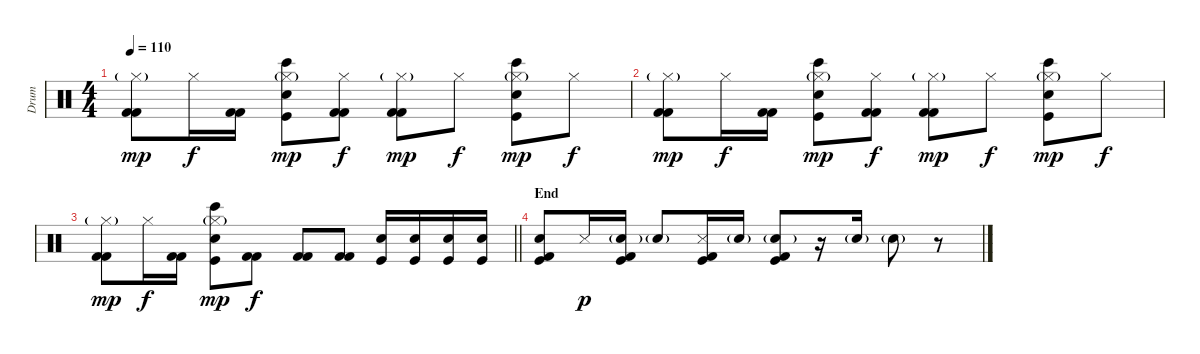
\track ("Drum" "Drum") {instrument percussion}
\staff {score}
\articulation defaults
\ts (4 4)
\tempo 110
\clef neutral
\ks c
("Hi-Hat (closed)"{g} "Kick (hit) 2" "Kick (hit) 2").8{dy mp} "Hi-Hat (closed)".16{dy f} ("Kick (hit) 2" "Kick (hit) 2").16 ("Hi-Hat (closed)"{g} "Bongo High (hit)" "Electric Snare (hit)" "Kick (hit)").8{dy mp} ("Hi-Hat (closed)" "Kick (hit) 2" "Kick (hit) 2").8{dy f} ("Hi-Hat (closed)"{g} "Kick (hit) 2" "Kick (hit) 2").8{dy mp} "Hi-Hat (closed)".8{dy f} ("Hi-Hat (closed)"{g} "Bongo High (hit)" "Electric Snare (hit)" "Kick (hit)").8{dy mp} "Hi-Hat (closed)".8{dy f} |
("Hi-Hat (closed)"{g} "Kick (hit) 2" "Kick (hit) 2").8{dy mp} "Hi-Hat (closed)".16{dy f} ("Kick (hit) 2" "Kick (hit) 2").16 ("Hi-Hat (closed)"{g} "Bongo High (hit)" "Electric Snare (hit)" "Kick (hit)").8{dy mp} ("Hi-Hat (closed)" "Kick (hit) 2" "Kick (hit) 2").8{dy f} ("Hi-Hat (closed)"{g} "Kick (hit) 2" "Kick (hit) 2").8{dy mp} "Hi-Hat (closed)".8{dy f} ("Hi-Hat (closed)"{g} "Bongo High (hit)" "Electric Snare (hit)" "Kick (hit)").8{dy mp} "Hi-Hat (closed)".8{dy f} |
\barLineRight lightlight
("Hi-Hat (closed)"{g} "Kick (hit) 2" "Kick (hit) 2").8{dy mp} "Hi-Hat (closed)".16{dy f} ("Kick (hit) 2" "Kick (hit) 2").16 ("Hi-Hat (closed)"{g} "Bongo High (hit)" "Electric Snare (hit)" "Kick (hit)").8{dy mp} ("Kick (hit) 2" "Kick (hit) 2").8{dy f} ("Kick (hit) 2" "Kick (hit) 2").8 ("Kick (hit) 2" "Kick (hit) 2").8 ("Electric Snare (hit)" "Kick (hit)").16 ("Electric Snare (hit)" "Kick (hit)").16 ("Electric Snare (hit)" "Kick (hit)").16 ("Electric Snare (hit)" "Kick (hit)").16 |
\section ("" "End")
("Hand Clap (hit)" "Kick (hit) 2" "Kick (hit)").8 "Snare (side stick) 3".16{dy p} ("Hand Clap (hit)"{g} "Kick (hit) 2" "Kick (hit)").16 "Hand Clap (hit)"{g}.8 ("Snare (side stick) 3" "Kick (hit) 2" "Kick (hit)").16 "Hand Clap (hit)"{g}.16 ("Hand Clap (hit)"{g} "Kick (hit) 2" "Kick (hit)").8 r.16 "Hand Clap (hit)"{g}.16 "Hand Clap (hit)"{g}.8 r.8
